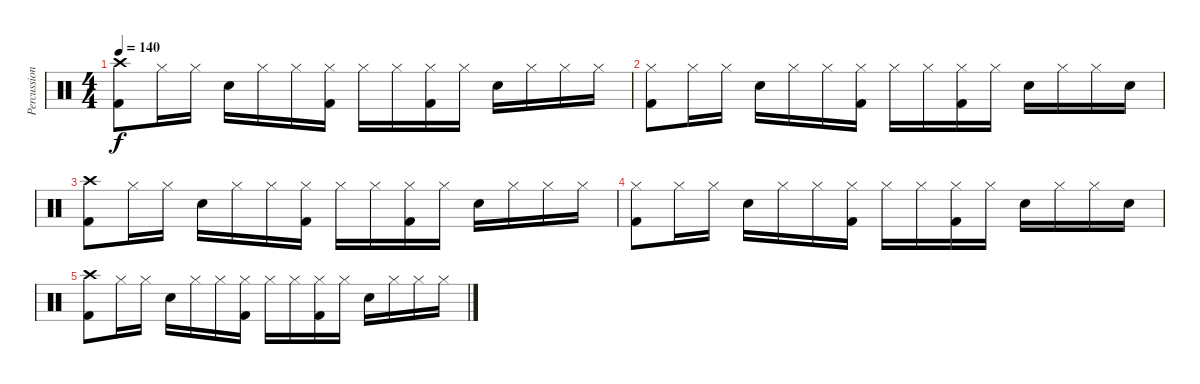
\track ("Percussion" "Percussion") {instrument percussion}
\staff {score}
\articulation defaults
\ts (4 4)
\tempo 140
\clef neutral
\ks c
("Crash high (hit)" "Kick (hit) 2").8{dy f} "Hi-Hat (closed)".16 "Hi-Hat (closed)".16 "Snare (hit) 2".16 "Hi-Hat (closed)".16 "Hi-Hat (closed)".16 ("Hi-Hat (closed)" "Kick (hit) 2").16 "Hi-Hat (closed)".16 "Hi-Hat (closed)".16 ("Hi-Hat (closed)" "Kick (hit) 2").16 "Hi-Hat (closed)".16 "Snare (hit) 2".16 "Hi-Hat (closed)".16 "Hi-Hat (closed)".16 "Hi-Hat (closed)".16 |
("Hi-Hat (closed)" "Kick (hit) 2").8 "Hi-Hat (closed)".16 "Hi-Hat (closed)".16 "Snare (hit) 2".16 "Hi-Hat (closed)".16 "Hi-Hat (closed)".16 ("Hi-Hat (closed)" "Kick (hit) 2").16 "Hi-Hat (closed)".16 "Hi-Hat (closed)".16 ("Hi-Hat (closed)" "Kick (hit) 2").16 "Hi-Hat (closed)".16 "Snare (hit) 2".16 "Hi-Hat (closed)".16 "Hi-Hat (closed)".16 "Snare (hit) 2".16 |
("Crash high (hit)" "Kick (hit) 2").8 "Hi-Hat (closed)".16 "Hi-Hat (closed)".16 "Snare (hit) 2".16 "Hi-Hat (closed)".16 "Hi-Hat (closed)".16 ("Hi-Hat (closed)" "Kick (hit) 2").16 "Hi-Hat (closed)".16 "Hi-Hat (closed)".16 ("Hi-Hat (closed)" "Kick (hit) 2").16 "Hi-Hat (closed)".16 "Snare (hit) 2".16 "Hi-Hat (closed)".16 "Hi-Hat (closed)".16 "Hi-Hat (closed)".16 |
("Hi-Hat (closed)" "Kick (hit) 2").8 "Hi-Hat (closed)".16 "Hi-Hat (closed)".16 "Snare (hit) 2".16 "Hi-Hat (closed)".16 "Hi-Hat (closed)".16 ("Hi-Hat (closed)" "Kick (hit) 2").16 "Hi-Hat (closed)".16 "Hi-Hat (closed)".16 ("Hi-Hat (closed)" "Kick (hit) 2").16 "Hi-Hat (closed)".16 "Snare (hit) 2".16 "Hi-Hat (closed)".16 "Hi-Hat (closed)".16 "Snare (hit) 2".16 |
("Crash high (hit)" "Kick (hit) 2").8 "Hi-Hat (closed)".16 "Hi-Hat (closed)".16 "Snare (hit) 2".16 "Hi-Hat (closed)".16 "Hi-Hat (closed)".16 ("Hi-Hat (closed)" "Kick (hit) 2").16 "Hi-Hat (closed)".16 "Hi-Hat (closed)".16 ("Hi-Hat (closed)" "Kick (hit) 2").16 "Hi-Hat (closed)".16 "Snare (hit) 2".16 "Hi-Hat (closed)".16 "Hi-Hat (closed)".16 "Hi-Hat (closed)".16
